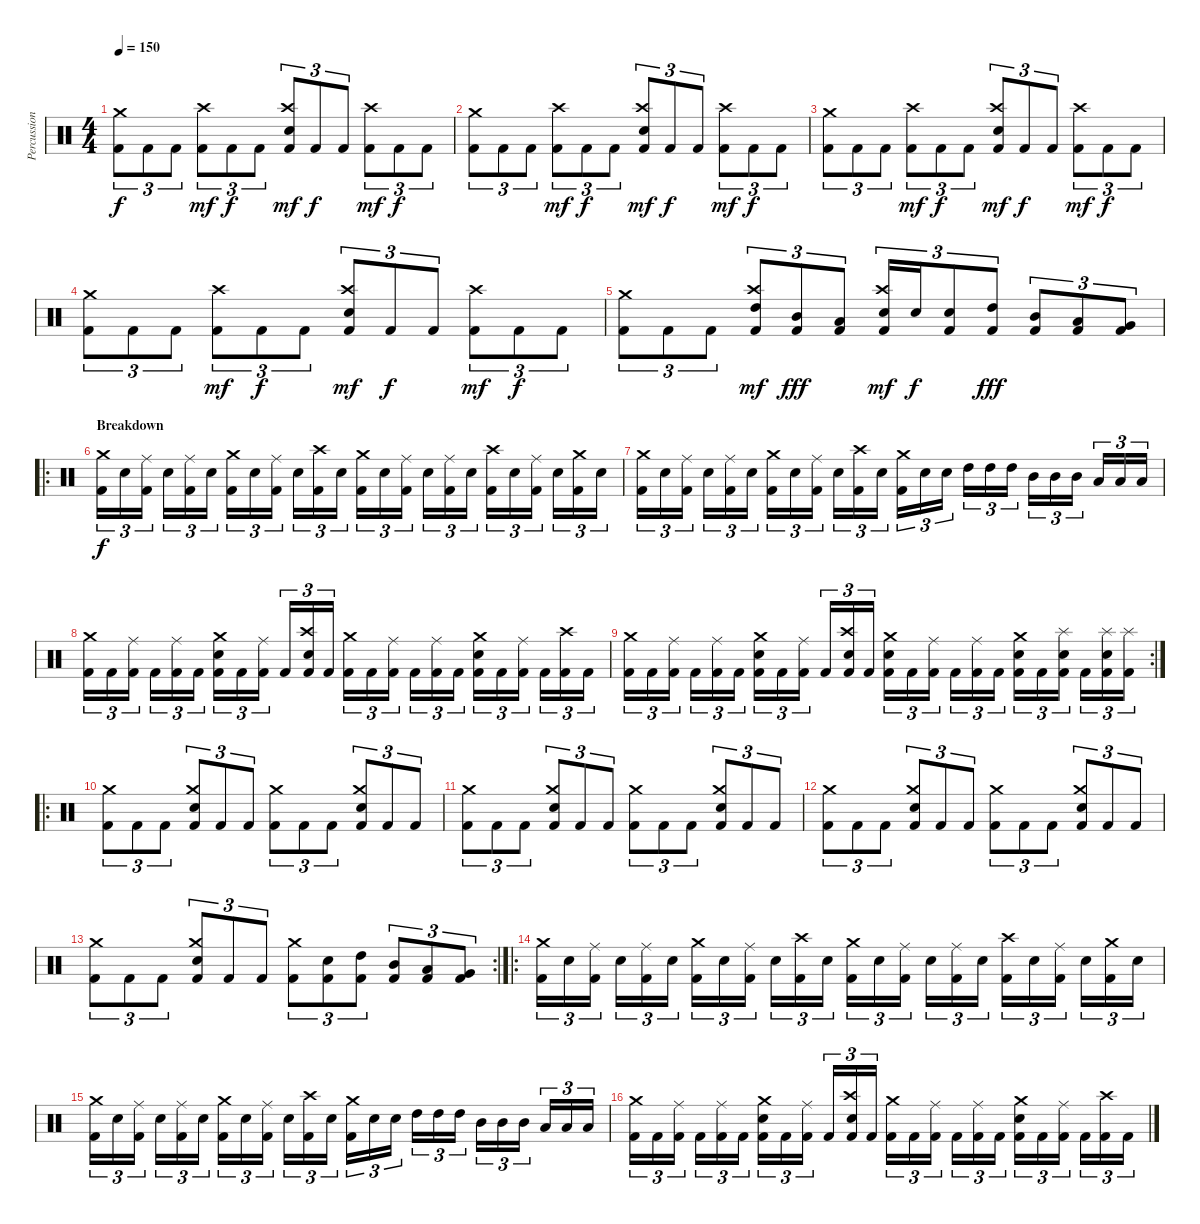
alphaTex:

\track ("Percussion" "Percussion") {instrument percussion}
\staff {score}
\articulation defaults
\ts (4 4)
\tempo 150
\clef neutral
\ks c
("Kick (hit) 2" "Crash medium (hit)").8{tu (3 2) dy f} "Kick (hit) 2".8{tu (3 2)} "Kick (hit) 2".8{tu (3 2)} ("Kick (hit) 2" "Crash high (hit)").8{tu (3 2) dy mf} "Kick (hit) 2".8{tu (3 2) dy f} "Kick (hit) 2".8{tu (3 2)} ("Kick (hit) 2" "Electric Snare (hit)" "Crash high (hit)").8{tu (3 2) dy mf} "Kick (hit) 2".8{tu (3 2) dy f} "Kick (hit) 2".8{tu (3 2)} ("Kick (hit) 2" "Crash high (hit)").8{tu (3 2) dy mf} "Kick (hit) 2".8{tu (3 2) dy f} "Kick (hit) 2".8{tu (3 2)} |
("Kick (hit) 2" "Crash medium (hit)").8{tu (3 2)} "Kick (hit) 2".8{tu (3 2)} "Kick (hit) 2".8{tu (3 2)} ("Kick (hit) 2" "Crash high (hit)").8{tu (3 2) dy mf} "Kick (hit) 2".8{tu (3 2) dy f} "Kick (hit) 2".8{tu (3 2)} ("Kick (hit) 2" "Electric Snare (hit)" "Crash high (hit)").8{tu (3 2) dy mf} "Kick (hit) 2".8{tu (3 2) dy f} "Kick (hit) 2".8{tu (3 2)} ("Kick (hit) 2" "Crash high (hit)").8{tu (3 2) dy mf} "Kick (hit) 2".8{tu (3 2) dy f} "Kick (hit) 2".8{tu (3 2)} |
("Kick (hit) 2" "Crash medium (hit)").8{tu (3 2)} "Kick (hit) 2".8{tu (3 2)} "Kick (hit) 2".8{tu (3 2)} ("Kick (hit) 2" "Crash high (hit)").8{tu (3 2) dy mf} "Kick (hit) 2".8{tu (3 2) dy f} "Kick (hit) 2".8{tu (3 2)} ("Kick (hit) 2" "Electric Snare (hit)" "Crash high (hit)").8{tu (3 2) dy mf} "Kick (hit) 2".8{tu (3 2) dy f} "Kick (hit) 2".8{tu (3 2)} ("Kick (hit) 2" "Crash high (hit)").8{tu (3 2) dy mf} "Kick (hit) 2".8{tu (3 2) dy f} "Kick (hit) 2".8{tu (3 2)} |
("Kick (hit) 2" "Crash medium (hit)").8{tu (3 2)} "Kick (hit) 2".8{tu (3 2)} "Kick (hit) 2".8{tu (3 2)} ("Kick (hit) 2" "Crash high (hit)").8{tu (3 2) dy mf} "Kick (hit) 2".8{tu (3 2) dy f} "Kick (hit) 2".8{tu (3 2)} ("Kick (hit) 2" "Electric Snare (hit)" "Crash high (hit)").8{tu (3 2) dy mf} "Kick (hit) 2".8{tu (3 2) dy f} "Kick (hit) 2".8{tu (3 2)} ("Kick (hit) 2" "Crash high (hit)").8{tu (3 2) dy mf} "Kick (hit) 2".8{tu (3 2) dy f} "Kick (hit) 2".8{tu (3 2)} |
("Kick (hit) 2" "Crash medium (hit)").8{tu (3 2)} "Kick (hit) 2".8{tu (3 2)} "Kick (hit) 2".8{tu (3 2)} ("Kick (hit) 2" "High Tom (hit)" "Crash high (hit)").8{tu (3 2) dy mf} ("Kick (hit) 2" "Mid Tom (hit)").8{tu (3 2) dy fff} ("Kick (hit) 2" "Low Tom (hit)").8{tu (3 2)} ("Kick (hit) 2" "Electric Snare (hit)" "Crash high (hit)").16{tu (3 2) dy mf} "Electric Snare (hit)".16{tu (3 2) dy f} ("Kick (hit) 2" "Electric Snare (hit)").8{tu (3 2)} ("Kick (hit) 2" "High Tom (hit)").8{tu (3 2) dy fff} ("Kick (hit) 2" "Mid Tom (hit)").8{tu (3 2)} ("Kick (hit) 2" "Low Tom (hit)").8{tu (3 2)} ("Kick (hit) 2" "Very Low Tom (hit)").8{tu (3 2)} |
\ro
\section ("" "Breakdown")
("Kick (hit) 2" "Crash medium (hit)").16{tu (3 2) dy f} "Electric Snare (hit)".16{tu (3 2)} ("Kick (hit) 2" "Ride (middle)").16{tu (3 2)} "Electric Snare (hit)".16{tu (3 2)} ("Kick (hit) 2" "Ride (middle)").16{tu (3 2)} "Electric Snare (hit)".16{tu (3 2)} ("Kick (hit) 2" "Crash medium (hit)").16{tu (3 2)} "Electric Snare (hit)".16{tu (3 2)} ("Kick (hit) 2" "Ride (middle)").16{tu (3 2)} "Electric Snare (hit)".16{tu (3 2)} ("Kick (hit) 2" "Crash high (hit)").16{tu (3 2)} "Electric Snare (hit)".16{tu (3 2)} ("Kick (hit) 2" "Crash medium (hit)").16{tu (3 2)} "Electric Snare (hit)".16{tu (3 2)} ("Kick (hit) 2" "Ride (middle)").16{tu (3 2)} "Electric Snare (hit)".16{tu (3 2)} ("Kick (hit) 2" "Ride (middle)").16{tu (3 2)} "Electric Snare (hit)".16{tu (3 2)} ("Kick (hit) 2" "Crash high (hit)").16{tu (3 2)} "Electric Snare (hit)".16{tu (3 2)} ("Kick (hit) 2" "Ride (middle)").16{tu (3 2)} "Electric Snare (hit)".16{tu (3 2)} ("Kick (hit) 2" "Crash medium (hit)").16{tu (3 2)} "Electric Snare (hit)".16{tu (3 2)} |
("Kick (hit) 2" "Crash medium (hit)").16{tu (3 2)} "Electric Snare (hit)".16{tu (3 2)} ("Kick (hit) 2" "Ride (middle)").16{tu (3 2)} "Electric Snare (hit)".16{tu (3 2)} ("Kick (hit) 2" "Ride (middle)").16{tu (3 2)} "Electric Snare (hit)".16{tu (3 2)} ("Kick (hit) 2" "Crash medium (hit)").16{tu (3 2)} "Electric Snare (hit)".16{tu (3 2)} ("Kick (hit) 2" "Ride (middle)").16{tu (3 2)} "Electric Snare (hit)".16{tu (3 2)} ("Kick (hit) 2" "Crash high (hit)").16{tu (3 2)} "Electric Snare (hit)".16{tu (3 2)} ("Kick (hit) 2" "Crash medium (hit)").16{tu (3 2)} "Electric Snare (hit)".16{tu (3 2)} "Electric Snare (hit)".16{tu (3 2)} "High Tom (hit)".16{tu (3 2)} "High Tom (hit)".16{tu (3 2)} "High Tom (hit)".16{tu (3 2)} "Mid Tom (hit)".16{tu (3 2)} "Mid Tom (hit)".16{tu (3 2)} "Mid Tom (hit)".16{tu (3 2)} "Low Tom (hit)".16{tu (3 2)} "Low Tom (hit)".16{tu (3 2)} "Low Tom (hit)".16{tu (3 2)} |
("Kick (hit) 2" "Crash medium (hit)").16{tu (3 2)} "Kick (hit) 2".16{tu (3 2)} ("Kick (hit) 2" "Ride (middle)").16{tu (3 2)} "Kick (hit) 2".16{tu (3 2)} ("Kick (hit) 2" "Ride (middle)").16{tu (3 2)} "Kick (hit) 2".16{tu (3 2)} ("Kick (hit) 2" "Electric Snare (hit)" "Crash medium (hit)").16{tu (3 2)} "Kick (hit) 2".16{tu (3 2)} ("Kick (hit) 2" "Ride (middle)").16{tu (3 2)} "Kick (hit) 2".16{tu (3 2)} ("Kick (hit) 2" "Electric Snare (hit)" "Crash high (hit)").16{tu (3 2)} "Kick (hit) 2".16{tu (3 2)} ("Kick (hit) 2" "Crash medium (hit)").16{tu (3 2)} "Kick (hit) 2".16{tu (3 2)} ("Kick (hit) 2" "Ride (middle)").16{tu (3 2)} "Kick (hit) 2".16{tu (3 2)} ("Kick (hit) 2" "Ride (middle)").16{tu (3 2)} "Kick (hit) 2".16{tu (3 2)} ("Kick (hit) 2" "Electric Snare (hit)" "Crash medium (hit)").16{tu (3 2)} "Kick (hit) 2".16{tu (3 2)} ("Kick (hit) 2" "Ride (middle)").16{tu (3 2)} "Kick (hit) 2".16{tu (3 2)} ("Kick (hit) 2" "Crash high (hit)").16{tu (3 2)} "Kick (hit) 2".16{tu (3 2)} |
\rc 2
("Kick (hit) 2" "Crash medium (hit)").16{tu (3 2)} "Kick (hit) 2".16{tu (3 2)} ("Kick (hit) 2" "Ride (middle)").16{tu (3 2)} "Kick (hit) 2".16{tu (3 2)} ("Kick (hit) 2" "Ride (middle)").16{tu (3 2)} "Kick (hit) 2".16{tu (3 2)} ("Kick (hit) 2" "Electric Snare (hit)" "Crash medium (hit)").16{tu (3 2)} "Kick (hit) 2".16{tu (3 2)} ("Kick (hit) 2" "Ride (middle)").16{tu (3 2)} "Kick (hit) 2".16{tu (3 2)} ("Kick (hit) 2" "Electric Snare (hit)" "Crash high (hit)").16{tu (3 2)} "Kick (hit) 2".16{tu (3 2)} ("Kick (hit) 2" "Electric Snare (hit)" "Crash medium (hit)").16{tu (3 2)} "Kick (hit) 2".16{tu (3 2)} ("Kick (hit) 2" "Ride (middle)").16{tu (3 2)} "Kick (hit) 2".16{tu (3 2)} ("Kick (hit) 2" "Ride (middle)").16{tu (3 2)} "Kick (hit) 2".16{tu (3 2)} ("Kick (hit) 2" "Electric Snare (hit)" "Crash medium (hit)").16{tu (3 2)} "Kick (hit) 2".16{tu (3 2)} ("Kick (hit) 2" "Electric Snare (hit)" "Splash (hit)").16{tu (3 2)} "Kick (hit) 2".16{tu (3 2)} ("Kick (hit) 2" "Electric Snare (hit)" "Splash (hit)").16{tu (3 2)} ("Kick (hit) 2" "Splash (hit)").16{tu (3 2)} |
\ro
("Kick (hit) 2" "Crash medium (hit)").8{tu (3 2)} "Kick (hit) 2".8{tu (3 2)} "Kick (hit) 2".8{tu (3 2)} ("Kick (hit) 2" "Electric Snare (hit)" "Crash medium (hit)").8{tu (3 2)} "Kick (hit) 2".8{tu (3 2)} "Kick (hit) 2".8{tu (3 2)} ("Kick (hit) 2" "Crash medium (hit)").8{tu (3 2)} "Kick (hit) 2".8{tu (3 2)} "Kick (hit) 2".8{tu (3 2)} ("Kick (hit) 2" "Electric Snare (hit)" "Crash medium (hit)").8{tu (3 2)} "Kick (hit) 2".8{tu (3 2)} "Kick (hit) 2".8{tu (3 2)} |
("Kick (hit) 2" "Crash medium (hit)").8{tu (3 2)} "Kick (hit) 2".8{tu (3 2)} "Kick (hit) 2".8{tu (3 2)} ("Kick (hit) 2" "Electric Snare (hit)" "Crash medium (hit)").8{tu (3 2)} "Kick (hit) 2".8{tu (3 2)} "Kick (hit) 2".8{tu (3 2)} ("Kick (hit) 2" "Crash medium (hit)").8{tu (3 2)} "Kick (hit) 2".8{tu (3 2)} "Kick (hit) 2".8{tu (3 2)} ("Kick (hit) 2" "Electric Snare (hit)" "Crash medium (hit)").8{tu (3 2)} "Kick (hit) 2".8{tu (3 2)} "Kick (hit) 2".8{tu (3 2)} |
("Kick (hit) 2" "Crash medium (hit)").8{tu (3 2)} "Kick (hit) 2".8{tu (3 2)} "Kick (hit) 2".8{tu (3 2)} ("Kick (hit) 2" "Electric Snare (hit)" "Crash medium (hit)").8{tu (3 2)} "Kick (hit) 2".8{tu (3 2)} "Kick (hit) 2".8{tu (3 2)} ("Kick (hit) 2" "Crash medium (hit)").8{tu (3 2)} "Kick (hit) 2".8{tu (3 2)} "Kick (hit) 2".8{tu (3 2)} ("Kick (hit) 2" "Electric Snare (hit)" "Crash medium (hit)").8{tu (3 2)} "Kick (hit) 2".8{tu (3 2)} "Kick (hit) 2".8{tu (3 2)} |
\rc 2
("Kick (hit) 2" "Crash medium (hit)").8{tu (3 2)} "Kick (hit) 2".8{tu (3 2)} "Kick (hit) 2".8{tu (3 2)} ("Kick (hit) 2" "Electric Snare (hit)" "Crash medium (hit)").8{tu (3 2)} "Kick (hit) 2".8{tu (3 2)} "Kick (hit) 2".8{tu (3 2)} ("Kick (hit) 2" "Crash medium (hit)").8{tu (3 2)} ("Kick (hit) 2" "Electric Snare (hit)").8{tu (3 2)} ("Kick (hit) 2" "High Tom (hit)").8{tu (3 2)} ("Kick (hit) 2" "Mid Tom (hit)").8{tu (3 2)} ("Kick (hit) 2" "Low Tom (hit)").8{tu (3 2)} ("Kick (hit) 2" "Very Low Tom (hit)").8{tu (3 2)} |
\ro
("Kick (hit) 2" "Crash medium (hit)").16{tu (3 2)} "Electric Snare (hit)".16{tu (3 2)} ("Kick (hit) 2" "Ride (middle)").16{tu (3 2)} "Electric Snare (hit)".16{tu (3 2)} ("Kick (hit) 2" "Ride (middle)").16{tu (3 2)} "Electric Snare (hit)".16{tu (3 2)} ("Kick (hit) 2" "Crash medium (hit)").16{tu (3 2)} "Electric Snare (hit)".16{tu (3 2)} ("Kick (hit) 2" "Ride (middle)").16{tu (3 2)} "Electric Snare (hit)".16{tu (3 2)} ("Kick (hit) 2" "Crash high (hit)").16{tu (3 2)} "Electric Snare (hit)".16{tu (3 2)} ("Kick (hit) 2" "Crash medium (hit)").16{tu (3 2)} "Electric Snare (hit)".16{tu (3 2)} ("Kick (hit) 2" "Ride (middle)").16{tu (3 2)} "Electric Snare (hit)".16{tu (3 2)} ("Kick (hit) 2" "Ride (middle)").16{tu (3 2)} "Electric Snare (hit)".16{tu (3 2)} ("Kick (hit) 2" "Crash high (hit)").16{tu (3 2)} "Electric Snare (hit)".16{tu (3 2)} ("Kick (hit) 2" "Ride (middle)").16{tu (3 2)} "Electric Snare (hit)".16{tu (3 2)} ("Kick (hit) 2" "Crash medium (hit)").16{tu (3 2)} "Electric Snare (hit)".16{tu (3 2)} |
("Kick (hit) 2" "Crash medium (hit)").16{tu (3 2)} "Electric Snare (hit)".16{tu (3 2)} ("Kick (hit) 2" "Ride (middle)").16{tu (3 2)} "Electric Snare (hit)".16{tu (3 2)} ("Kick (hit) 2" "Ride (middle)").16{tu (3 2)} "Electric Snare (hit)".16{tu (3 2)} ("Kick (hit) 2" "Crash medium (hit)").16{tu (3 2)} "Electric Snare (hit)".16{tu (3 2)} ("Kick (hit) 2" "Ride (middle)").16{tu (3 2)} "Electric Snare (hit)".16{tu (3 2)} ("Kick (hit) 2" "Crash high (hit)").16{tu (3 2)} "Electric Snare (hit)".16{tu (3 2)} ("Kick (hit) 2" "Crash medium (hit)").16{tu (3 2)} "Electric Snare (hit)".16{tu (3 2)} "Electric Snare (hit)".16{tu (3 2)} "High Tom (hit)".16{tu (3 2)} "High Tom (hit)".16{tu (3 2)} "High Tom (hit)".16{tu (3 2)} "Mid Tom (hit)".16{tu (3 2)} "Mid Tom (hit)".16{tu (3 2)} "Mid Tom (hit)".16{tu (3 2)} "Low Tom (hit)".16{tu (3 2)} "Low Tom (hit)".16{tu (3 2)} "Low Tom (hit)".16{tu (3 2)} |
("Kick (hit) 2" "Crash medium (hit)").16{tu (3 2)} "Kick (hit) 2".16{tu (3 2)} ("Kick (hit) 2" "Ride (middle)").16{tu (3 2)} "Kick (hit) 2".16{tu (3 2)} ("Kick (hit) 2" "Ride (middle)").16{tu (3 2)} "Kick (hit) 2".16{tu (3 2)} ("Kick (hit) 2" "Electric Snare (hit)" "Crash medium (hit)").16{tu (3 2)} "Kick (hit) 2".16{tu (3 2)} ("Kick (hit) 2" "Ride (middle)").16{tu (3 2)} "Kick (hit) 2".16{tu (3 2)} ("Kick (hit) 2" "Electric Snare (hit)" "Crash high (hit)").16{tu (3 2)} "Kick (hit) 2".16{tu (3 2)} ("Kick (hit) 2" "Crash medium (hit)").16{tu (3 2)} "Kick (hit) 2".16{tu (3 2)} ("Kick (hit) 2" "Ride (middle)").16{tu (3 2)} "Kick (hit) 2".16{tu (3 2)} ("Kick (hit) 2" "Ride (middle)").16{tu (3 2)} "Kick (hit) 2".16{tu (3 2)} ("Kick (hit) 2" "Electric Snare (hit)" "Crash medium (hit)").16{tu (3 2)} "Kick (hit) 2".16{tu (3 2)} ("Kick (hit) 2" "Ride (middle)").16{tu (3 2)} "Kick (hit) 2".16{tu (3 2)} ("Kick (hit) 2" "Crash high (hit)").16{tu (3 2)} "Kick (hit) 2".16{tu (3 2)}
